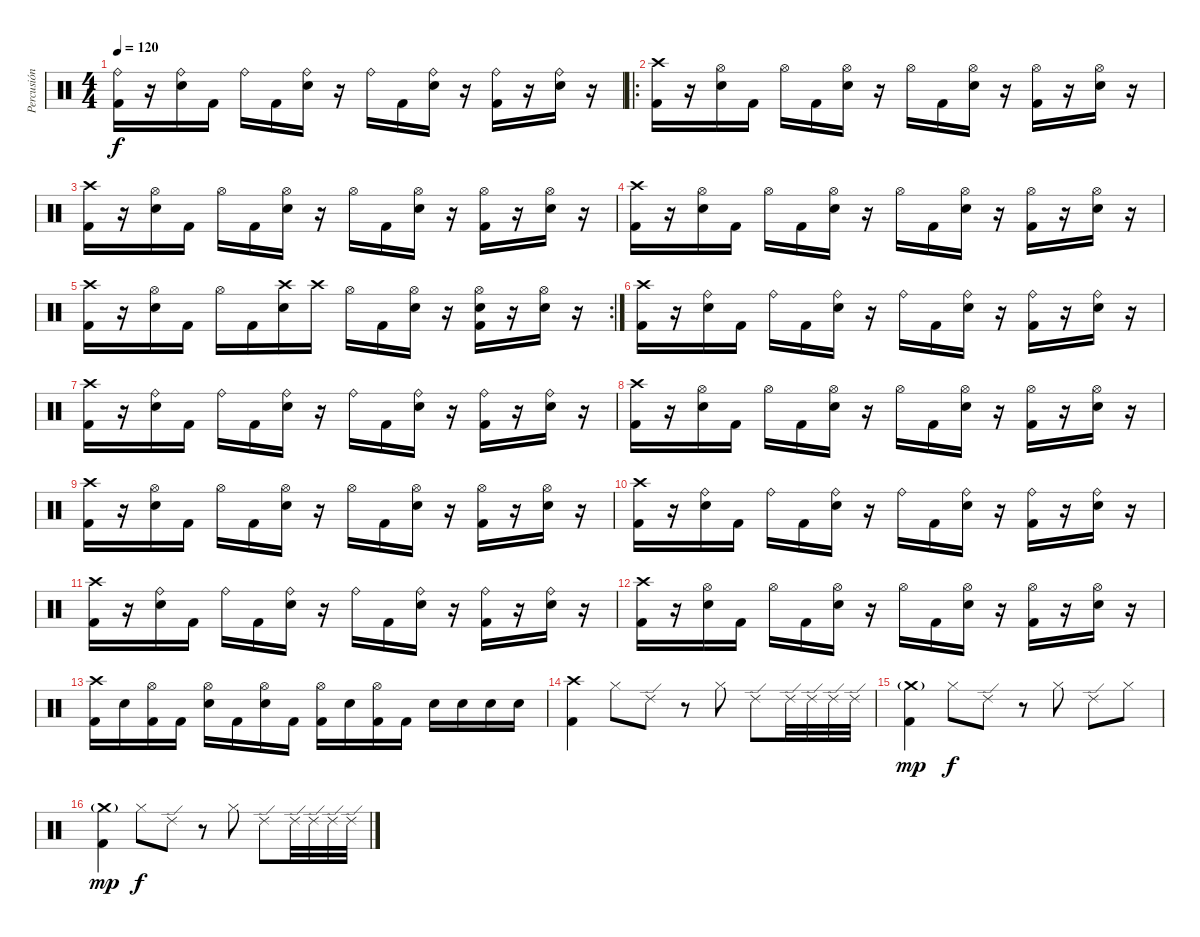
\track ("Percusión" "Percusión") {instrument percussion}
\staff {score}
\articulation defaults
\ts (4 4)
\tempo 120
\clef neutral
\ks c
("Ride (bell)" "Kick (hit) 2").16{dy f} r.16 ("Ride (bell)" "Electric Snare (hit)").16 "Kick (hit) 2".16 "Ride (bell)".16 "Kick (hit) 2".16 ("Ride (bell)" "Electric Snare (hit)").16 r.16 "Ride (bell)".16 "Kick (hit) 2".16 ("Ride (bell)" "Electric Snare (hit)").16 r.16 ("Ride (bell)" "Kick (hit) 2").16 r.16 ("Ride (bell)" "Electric Snare (hit)").16 r.16 |
\ro
("Crash high (hit)" "Kick (hit) 2").16 r.16 ("Hi-Hat (open)" "Electric Snare (hit)").16 "Kick (hit) 2".16 "Hi-Hat (open)".16 "Kick (hit) 2".16 ("Hi-Hat (open)" "Electric Snare (hit)").16 r.16 "Hi-Hat (open)".16 "Kick (hit) 2".16 ("Hi-Hat (open)" "Electric Snare (hit)").16 r.16 ("Hi-Hat (open)" "Kick (hit) 2").16 r.16 ("Hi-Hat (open)" "Electric Snare (hit)").16 r.16 |
("Crash high (hit)" "Kick (hit) 2").16 r.16 ("Hi-Hat (open)" "Electric Snare (hit)").16 "Kick (hit) 2".16 "Hi-Hat (open)".16 "Kick (hit) 2".16 ("Hi-Hat (open)" "Electric Snare (hit)").16 r.16 "Hi-Hat (open)".16 "Kick (hit) 2".16 ("Hi-Hat (open)" "Electric Snare (hit)").16 r.16 ("Hi-Hat (open)" "Kick (hit) 2").16 r.16 ("Hi-Hat (open)" "Electric Snare (hit)").16 r.16 |
("Crash high (hit)" "Kick (hit) 2").16 r.16 ("Hi-Hat (open)" "Electric Snare (hit)").16 "Kick (hit) 2".16 "Hi-Hat (open)".16 "Kick (hit) 2".16 ("Hi-Hat (open)" "Electric Snare (hit)").16 r.16 "Hi-Hat (open)".16 "Kick (hit) 2".16 ("Hi-Hat (open)" "Electric Snare (hit)").16 r.16 ("Hi-Hat (open)" "Kick (hit) 2").16 r.16 ("Hi-Hat (open)" "Electric Snare (hit)").16 r.16 |
\rc 2
("Crash high (hit)" "Kick (hit) 2").16 r.16 ("Hi-Hat (open)" "Electric Snare (hit)").16 "Kick (hit) 2".16 "Hi-Hat (open)".16 "Kick (hit) 2".16 ("Crash high (hit)" "Electric Snare (hit)").16 "Crash high (hit)".16 "Hi-Hat (open)".16 "Kick (hit) 2".16 ("Hi-Hat (open)" "Electric Snare (hit)").16 r.16 ("Hi-Hat (open)" "Electric Snare (hit)" "Kick (hit) 2").16 r.16 ("Hi-Hat (open)" "Electric Snare (hit)").16 r.16 |
("Crash high (hit)" "Kick (hit) 2").16 r.16 ("Ride (bell)" "Electric Snare (hit)").16 "Kick (hit) 2".16 "Ride (bell)".16 "Kick (hit) 2".16 ("Ride (bell)" "Electric Snare (hit)").16 r.16 "Ride (bell)".16 "Kick (hit) 2".16 ("Ride (bell)" "Electric Snare (hit)").16 r.16 ("Ride (bell)" "Kick (hit) 2").16 r.16 ("Ride (bell)" "Electric Snare (hit)").16 r.16 |
("Crash high (hit)" "Kick (hit) 2").16 r.16 ("Ride (bell)" "Electric Snare (hit)").16 "Kick (hit) 2".16 "Ride (bell)".16 "Kick (hit) 2".16 ("Ride (bell)" "Electric Snare (hit)").16 r.16 "Ride (bell)".16 "Kick (hit) 2".16 ("Ride (bell)" "Electric Snare (hit)").16 r.16 ("Ride (bell)" "Kick (hit) 2").16 r.16 ("Ride (bell)" "Electric Snare (hit)").16 r.16 |
("Crash high (hit)" "Kick (hit) 2").16 r.16 ("Hi-Hat (open)" "Electric Snare (hit)").16 "Kick (hit) 2".16 "Hi-Hat (open)".16 "Kick (hit) 2".16 ("Hi-Hat (open)" "Electric Snare (hit)").16 r.16 "Hi-Hat (open)".16 "Kick (hit) 2".16 ("Hi-Hat (open)" "Electric Snare (hit)").16 r.16 ("Hi-Hat (open)" "Kick (hit) 2").16 r.16 ("Hi-Hat (open)" "Electric Snare (hit)").16 r.16 |
("Crash high (hit)" "Kick (hit) 2").16 r.16 ("Hi-Hat (open)" "Electric Snare (hit)").16 "Kick (hit) 2".16 "Hi-Hat (open)".16 "Kick (hit) 2".16 ("Hi-Hat (open)" "Electric Snare (hit)").16 r.16 "Hi-Hat (open)".16 "Kick (hit) 2".16 ("Hi-Hat (open)" "Electric Snare (hit)").16 r.16 ("Hi-Hat (open)" "Kick (hit) 2").16 r.16 ("Hi-Hat (open)" "Electric Snare (hit)").16 r.16 |
("Crash high (hit)" "Kick (hit) 2").16 r.16 ("Ride (bell)" "Electric Snare (hit)").16 "Kick (hit) 2".16 "Ride (bell)".16 "Kick (hit) 2".16 ("Ride (bell)" "Electric Snare (hit)").16 r.16 "Ride (bell)".16 "Kick (hit) 2".16 ("Ride (bell)" "Electric Snare (hit)").16 r.16 ("Ride (bell)" "Kick (hit) 2").16 r.16 ("Ride (bell)" "Electric Snare (hit)").16 r.16 |
("Crash high (hit)" "Kick (hit) 2").16 r.16 ("Ride (bell)" "Electric Snare (hit)").16 "Kick (hit) 2".16 "Ride (bell)".16 "Kick (hit) 2".16 ("Ride (bell)" "Electric Snare (hit)").16 r.16 "Ride (bell)".16 "Kick (hit) 2".16 ("Ride (bell)" "Electric Snare (hit)").16 r.16 ("Ride (bell)" "Kick (hit) 2").16 r.16 ("Ride (bell)" "Electric Snare (hit)").16 r.16 |
("Crash high (hit)" "Kick (hit) 2").16 r.16 ("Hi-Hat (open)" "Electric Snare (hit)").16 "Kick (hit) 2".16 "Hi-Hat (open)".16 "Kick (hit) 2".16 ("Hi-Hat (open)" "Electric Snare (hit)").16 r.16 "Hi-Hat (open)".16 "Kick (hit) 2".16 ("Hi-Hat (open)" "Electric Snare (hit)").16 r.16 ("Hi-Hat (open)" "Kick (hit) 2").16 r.16 ("Hi-Hat (open)" "Electric Snare (hit)").16 r.16 |
("Crash high (hit)" "Kick (hit) 2").16 "Electric Snare (hit)".16 ("Hi-Hat (open)" "Kick (hit) 2").16 "Kick (hit) 2".16 ("Hi-Hat (open)" "Electric Snare (hit)").16 "Kick (hit) 2".16 ("Hi-Hat (open)" "Electric Snare (hit)").16 "Kick (hit) 2".16 ("Hi-Hat (open)" "Kick (hit) 2").16 "Electric Snare (hit)".16 ("Hi-Hat (open)" "Kick (hit) 2").16 "Kick (hit) 2".16 "Electric Snare (hit)".16 "Electric Snare (hit)".16 "Electric Snare (hit)".16 "Electric Snare (hit)".16 |
("Crash high (hit)" "Kick (hit) 2").4 "Hi-Hat (closed)".8 "Ride (edge) 2".8 r.8 "Hi-Hat (closed)".8 "Ride (edge) 2".8 "Ride (edge) 2".32 "Ride (edge) 2".32 "Ride (edge) 2".32 "Ride (edge) 2".32 |
("Crash medium (hit)"{g} "Kick (hit) 2").4{dy mp} "Hi-Hat (closed)".8{dy f} "Ride (edge) 2".8 r.8 "Hi-Hat (closed)".8 "Ride (edge) 2".8 "Hi-Hat (closed)".8 |
("Crash medium (hit)"{g} "Kick (hit) 2").4{dy mp} "Hi-Hat (closed)".8{dy f} "Ride (edge) 2".8 r.8 "Hi-Hat (closed)".8 "Ride (edge) 2".8 "Ride (edge) 2".32 "Ride (edge) 2".32 "Ride (edge) 2".32 "Ride (edge) 2".32
